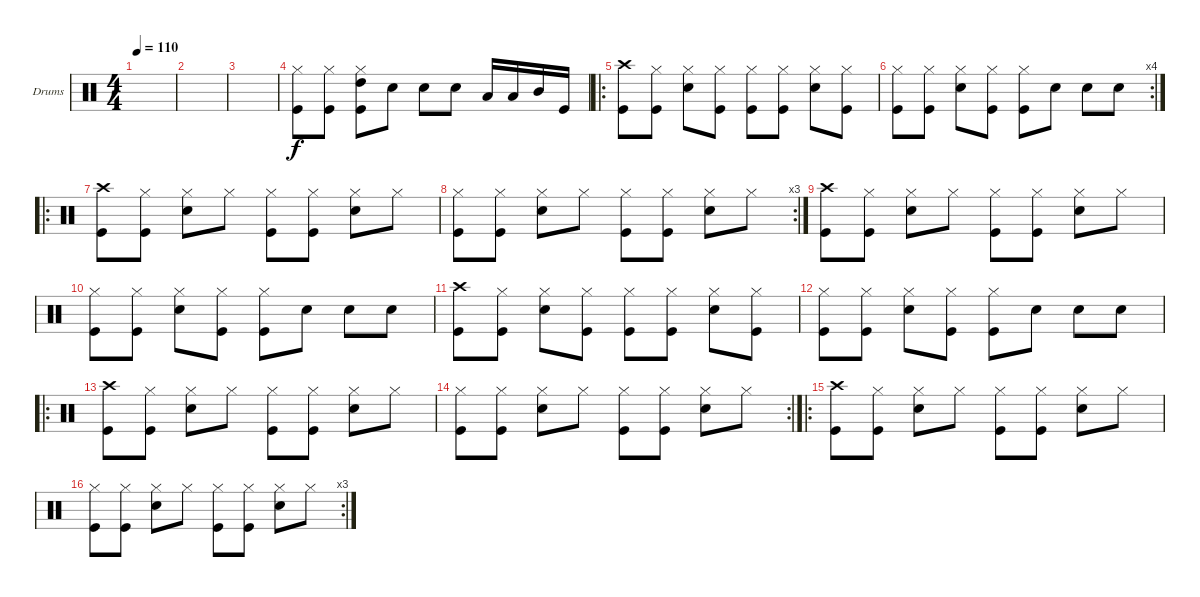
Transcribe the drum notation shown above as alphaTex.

\defaultSystemsLayout 4
\bracketExtendMode groupsimilarinstruments
\firstSystemTrackNameOrientation horizontal
\otherSystemsTrackNameOrientation horizontal
\track ("Drumkit" "Drums") {instrument percussion}
\staff {score}
\articulation defaults
\ts (4 4)
\tempo 110
\clef neutral
\ks c
|
|
|
("Hi-Hat (closed)" "Kick (hit)").8 ("Hi-Hat (closed)" "Kick (hit)").8 ("Hi-Hat (closed)" "Kick (hit)" "High Tom (hit)").8 "Snare (hit) 2".8 "Snare (hit) 2".8 "Snare (hit) 2".8 "Low Tom (hit)".16 "Low Tom (hit)".16 "Mid Tom (hit)".16 "Kick (hit)".16 |
\ro
("Kick (hit)" "Crash high (hit)").8 ("Kick (hit)" "Hi-Hat (closed)").8 ("Snare (hit) 2" "Hi-Hat (closed)").8 ("Kick (hit)" "Hi-Hat (closed)").8 ("Kick (hit)" "Hi-Hat (closed)").8 ("Kick (hit)" "Hi-Hat (closed)").8 ("Snare (hit) 2" "Hi-Hat (closed)").8 ("Kick (hit)" "Hi-Hat (closed)").8 |
\rc 4
("Kick (hit)" "Hi-Hat (closed)").8 ("Kick (hit)" "Hi-Hat (closed)").8 ("Snare (hit) 2" "Hi-Hat (closed)").8 ("Kick (hit)" "Hi-Hat (closed)").8 ("Kick (hit)" "Hi-Hat (closed)").8 "Snare (hit) 2".8 "Snare (hit) 2".8 "Snare (hit) 2".8 |
\ro
("Kick (hit)" "Crash high (hit)").8 ("Hi-Hat (closed)" "Kick (hit)").8 ("Hi-Hat (closed)" "Snare (hit) 2").8 "Hi-Hat (closed)".8 ("Hi-Hat (closed)" "Kick (hit)").8 ("Hi-Hat (closed)" "Kick (hit)").8 ("Hi-Hat (closed)" "Snare (hit) 2").8 "Hi-Hat (closed)".8 |
\rc 3
("Hi-Hat (closed)" "Kick (hit)").8 ("Hi-Hat (closed)" "Kick (hit)").8 ("Hi-Hat (closed)" "Snare (hit) 2").8 "Hi-Hat (closed)".8 ("Hi-Hat (closed)" "Kick (hit)").8 ("Hi-Hat (closed)" "Kick (hit)").8 ("Hi-Hat (closed)" "Snare (hit) 2").8 "Hi-Hat (closed)".8 |
("Kick (hit)" "Crash high (hit)").8 ("Hi-Hat (closed)" "Kick (hit)").8 ("Hi-Hat (closed)" "Snare (hit) 2").8 "Hi-Hat (closed)".8 ("Hi-Hat (closed)" "Kick (hit)").8 ("Hi-Hat (closed)" "Kick (hit)").8 ("Hi-Hat (closed)" "Snare (hit) 2").8 "Hi-Hat (closed)".8 |
("Kick (hit)" "Hi-Hat (closed)").8 ("Kick (hit)" "Hi-Hat (closed)").8 ("Snare (hit) 2" "Hi-Hat (closed)").8 ("Kick (hit)" "Hi-Hat (closed)").8 ("Kick (hit)" "Hi-Hat (closed)").8 "Snare (hit) 2".8 "Snare (hit) 2".8 "Snare (hit) 2".8 |
("Kick (hit)" "Crash high (hit)").8 ("Kick (hit)" "Hi-Hat (closed)").8 ("Snare (hit) 2" "Hi-Hat (closed)").8 ("Kick (hit)" "Hi-Hat (closed)").8 ("Kick (hit)" "Hi-Hat (closed)").8 ("Kick (hit)" "Hi-Hat (closed)").8 ("Snare (hit) 2" "Hi-Hat (closed)").8 ("Kick (hit)" "Hi-Hat (closed)").8 |
("Kick (hit)" "Hi-Hat (closed)").8 ("Kick (hit)" "Hi-Hat (closed)").8 ("Snare (hit) 2" "Hi-Hat (closed)").8 ("Kick (hit)" "Hi-Hat (closed)").8 ("Kick (hit)" "Hi-Hat (closed)").8 "Snare (hit) 2".8 "Snare (hit) 2".8 "Snare (hit) 2".8 |
\ro
("Kick (hit)" "Crash high (hit)").8 ("Hi-Hat (closed)" "Kick (hit)").8 ("Hi-Hat (closed)" "Snare (hit) 2").8 "Hi-Hat (closed)".8 ("Hi-Hat (closed)" "Kick (hit)").8 ("Hi-Hat (closed)" "Kick (hit)").8 ("Hi-Hat (closed)" "Snare (hit) 2").8 "Hi-Hat (closed)".8 |
\rc 2
("Hi-Hat (closed)" "Kick (hit)").8 ("Hi-Hat (closed)" "Kick (hit)").8 ("Hi-Hat (closed)" "Snare (hit) 2").8 "Hi-Hat (closed)".8 ("Hi-Hat (closed)" "Kick (hit)").8 ("Hi-Hat (closed)" "Kick (hit)").8 ("Hi-Hat (closed)" "Snare (hit) 2").8 "Hi-Hat (closed)".8 |
\ro
("Kick (hit)" "Crash high (hit)").8 ("Hi-Hat (closed)" "Kick (hit)").8 ("Hi-Hat (closed)" "Snare (hit) 2").8 "Hi-Hat (closed)".8 ("Hi-Hat (closed)" "Kick (hit)").8 ("Hi-Hat (closed)" "Kick (hit)").8 ("Hi-Hat (closed)" "Snare (hit) 2").8 "Hi-Hat (closed)".8 |
\rc 3
("Hi-Hat (closed)" "Kick (hit)").8 ("Hi-Hat (closed)" "Kick (hit)").8 ("Hi-Hat (closed)" "Snare (hit) 2").8 "Hi-Hat (closed)".8 ("Hi-Hat (closed)" "Kick (hit)").8 ("Hi-Hat (closed)" "Kick (hit)").8 ("Hi-Hat (closed)" "Snare (hit) 2").8 "Hi-Hat (closed)".8
